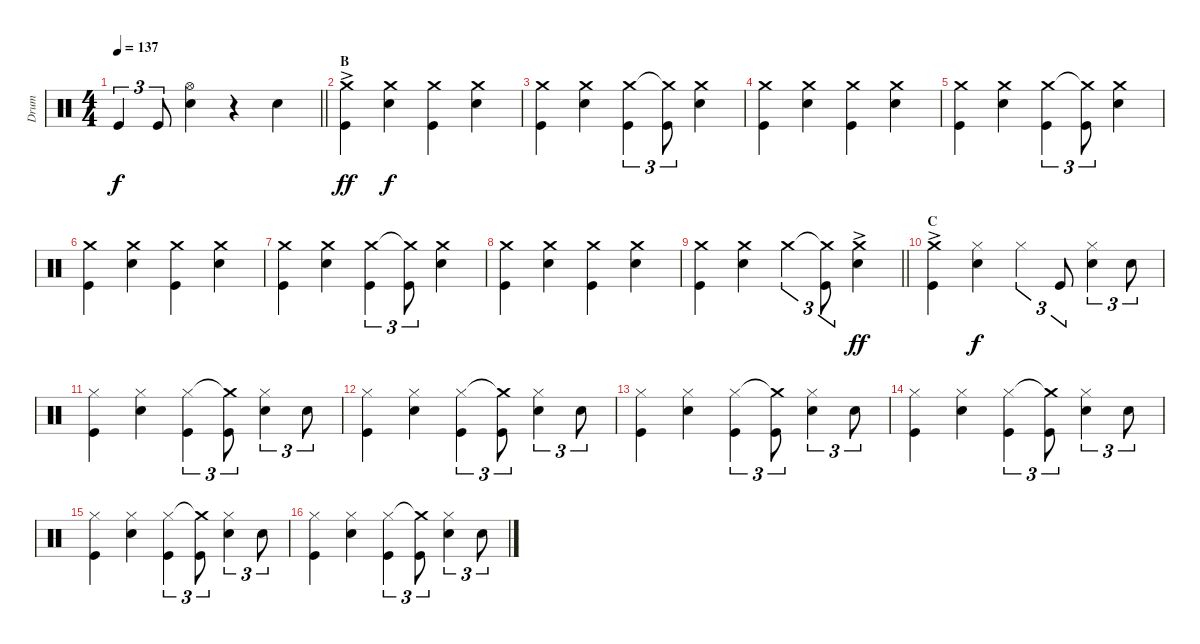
\track ("Drum" "Drum") {instrument percussion}
\staff {score}
\articulation defaults
\ts (4 4)
\tempo 137
\clef neutral
\barLineRight lightlight
\ks c "Kick (hit)".4{tu (3 2) dy f} "Kick (hit)".8{tu (3 2)}
("Hi-Hat (open)" "Snare (hit) 2").4 r.4 "Snare (hit) 2".4 |
\section ("" "B")
("Crash medium (hit)"{ac} "Kick (hit)"{ac}).4{dy ff} ("Crash medium (hit)" "Snare (hit) 2").4{dy f} ("Crash medium (hit)" "Kick (hit)").4 ("Crash medium (hit)" "Snare (hit) 2").4 |
("Crash medium (hit)" "Kick (hit)").4 ("Crash medium (hit)" "Snare (hit) 2").4 ("Crash medium (hit)" "Kick (hit)").4{tu (3 2)} ("Crash medium (hit)"{t} "Kick (hit)").8{tu (3 2)} ("Crash medium (hit)" "Snare (hit) 2").4 |
("Crash medium (hit)" "Kick (hit)").4 ("Crash medium (hit)" "Snare (hit) 2").4 ("Crash medium (hit)" "Kick (hit)").4 ("Crash medium (hit)" "Snare (hit) 2").4 |
("Crash medium (hit)" "Kick (hit)").4 ("Crash medium (hit)" "Snare (hit) 2").4 ("Crash medium (hit)" "Kick (hit)").4{tu (3 2)} ("Crash medium (hit)"{t} "Kick (hit)").8{tu (3 2)} ("Crash medium (hit)" "Snare (hit) 2").4 |
("Crash medium (hit)" "Kick (hit)").4 ("Crash medium (hit)" "Snare (hit) 2").4 ("Crash medium (hit)" "Kick (hit)").4 ("Crash medium (hit)" "Snare (hit) 2").4 |
("Crash medium (hit)" "Kick (hit)").4 ("Crash medium (hit)" "Snare (hit) 2").4 ("Crash medium (hit)" "Kick (hit)").4{tu (3 2)} ("Crash medium (hit)"{t} "Kick (hit)").8{tu (3 2)} ("Crash medium (hit)" "Snare (hit) 2").4 |
("Crash medium (hit)" "Kick (hit)").4 ("Crash medium (hit)" "Snare (hit) 2").4 ("Crash medium (hit)" "Kick (hit)").4 ("Crash medium (hit)" "Snare (hit) 2").4 |
\barLineRight lightlight
("Crash medium (hit)" "Kick (hit)").4 ("Crash medium (hit)" "Snare (hit) 2").4 "Crash medium (hit)".4{tu (3 2)} ("Crash medium (hit)"{t} "Kick (hit)").8{tu (3 2)} ("Crash medium (hit)"{ac} "Snare (hit) 2"{ac}).4{dy ff} |
\section ("" "C")
("Crash medium (hit)"{ac} "Kick (hit)"{ac}).4 ("Hi-Hat (closed)" "Snare (hit) 2").4{dy f} "Hi-Hat (closed)".4{tu (3 2)} "Kick (hit)".8{tu (3 2)} ("Hi-Hat (closed)" "Snare (hit) 2").4{tu (3 2)} "Snare (hit) 2".8{tu (3 2)} |
("Hi-Hat (closed)" "Kick (hit)").4 ("Hi-Hat (closed)" "Snare (hit) 2").4 ("Hi-Hat (closed)" "Kick (hit)").4{tu (3 2)} ("Crash medium (hit)"{t} "Kick (hit)").8{tu (3 2)} ("Hi-Hat (closed)" "Snare (hit) 2").4{tu (3 2)} "Snare (hit) 2".8{tu (3 2)} |
("Hi-Hat (closed)" "Kick (hit)").4 ("Hi-Hat (closed)" "Snare (hit) 2").4 ("Hi-Hat (closed)" "Kick (hit)").4{tu (3 2)} ("Crash medium (hit)"{t} "Kick (hit)").8{tu (3 2)} ("Hi-Hat (closed)" "Snare (hit) 2").4{tu (3 2)} "Snare (hit) 2".8{tu (3 2)} |
("Hi-Hat (closed)" "Kick (hit)").4 ("Hi-Hat (closed)" "Snare (hit) 2").4 ("Hi-Hat (closed)" "Kick (hit)").4{tu (3 2)} ("Crash medium (hit)"{t} "Kick (hit)").8{tu (3 2)} ("Hi-Hat (closed)" "Snare (hit) 2").4{tu (3 2)} "Snare (hit) 2".8{tu (3 2)} |
("Hi-Hat (closed)" "Kick (hit)").4 ("Hi-Hat (closed)" "Snare (hit) 2").4 ("Hi-Hat (closed)" "Kick (hit)").4{tu (3 2)} ("Crash medium (hit)"{t} "Kick (hit)").8{tu (3 2)} ("Hi-Hat (closed)" "Snare (hit) 2").4{tu (3 2)} "Snare (hit) 2".8{tu (3 2)} |
("Hi-Hat (closed)" "Kick (hit)").4 ("Hi-Hat (closed)" "Snare (hit) 2").4 ("Hi-Hat (closed)" "Kick (hit)").4{tu (3 2)} ("Crash medium (hit)"{t} "Kick (hit)").8{tu (3 2)} ("Hi-Hat (closed)" "Snare (hit) 2").4{tu (3 2)} "Snare (hit) 2".8{tu (3 2)} |
("Hi-Hat (closed)" "Kick (hit)").4 ("Hi-Hat (closed)" "Snare (hit) 2").4 ("Hi-Hat (closed)" "Kick (hit)").4{tu (3 2)} ("Crash medium (hit)"{t} "Kick (hit)").8{tu (3 2)} ("Hi-Hat (closed)" "Snare (hit) 2").4{tu (3 2)} "Snare (hit) 2".8{tu (3 2)}
